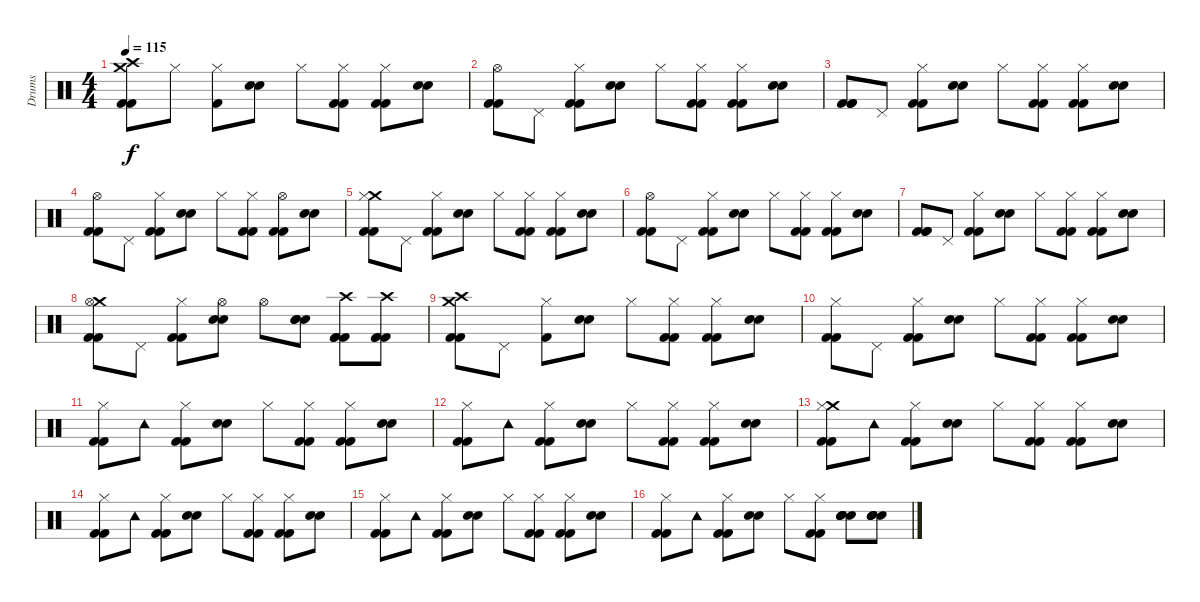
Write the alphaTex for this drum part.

\track ("Drums" "Drums") {instrument percussion}
\staff {score}
\articulation defaults
\ts (4 4)
\tempo 115
\clef neutral
\ks c
("Crash medium (hit)" "Crash high (hit)" "Kick (hit) 2" "Kick (hit) 2").8{dy f} "Hi-Hat (closed)".8 ("Hi-Hat (closed)" "Kick (hit) 2").8 ("Snare (hit) 2" "Snare (hit) 2").8 "Hi-Hat (closed)".8 ("Hi-Hat (closed)" "Kick (hit) 2" "Kick (hit) 2").8 ("Hi-Hat (closed)" "Kick (hit) 2" "Kick (hit) 2").8 ("Snare (hit) 2" "Snare (hit) 2").8 |
("Hi-Hat (open)" "Kick (hit) 2" "Kick (hit) 2").8 "Pedal Hi-Hat (hit)".8 ("Hi-Hat (closed)" "Kick (hit) 2" "Kick (hit) 2").8 ("Snare (hit) 2" "Snare (hit) 2").8 "Hi-Hat (closed)".8 ("Hi-Hat (closed)" "Kick (hit) 2" "Kick (hit) 2").8 ("Hi-Hat (closed)" "Kick (hit) 2" "Kick (hit) 2").8 ("Snare (hit) 2" "Snare (hit) 2").8 |
("Kick (hit) 2" "Kick (hit) 2" "Kick (hit) 2").8 "Pedal Hi-Hat (hit)".8 ("Hi-Hat (closed)" "Kick (hit) 2" "Kick (hit) 2").8 ("Snare (hit) 2" "Snare (hit) 2").8 "Hi-Hat (closed)".8 ("Hi-Hat (closed)" "Kick (hit) 2" "Kick (hit) 2").8 ("Hi-Hat (closed)" "Kick (hit) 2" "Kick (hit) 2").8 ("Snare (hit) 2" "Snare (hit) 2").8 |
("Hi-Hat (open)" "Kick (hit) 2" "Kick (hit) 2").8 "Pedal Hi-Hat (hit)".8 ("Hi-Hat (closed)" "Kick (hit) 2" "Kick (hit) 2").8 ("Snare (hit) 2" "Snare (hit) 2").8 "Hi-Hat (closed)".8 ("Hi-Hat (closed)" "Kick (hit) 2" "Kick (hit) 2").8 ("Hi-Hat (open)" "Kick (hit) 2" "Kick (hit) 2").8 ("Snare (hit) 2" "Snare (hit) 2").8 |
("Crash medium (hit)" "Hi-Hat (closed)" "Kick (hit) 2" "Kick (hit) 2").8 "Pedal Hi-Hat (hit)".8 ("Hi-Hat (closed)" "Kick (hit) 2" "Kick (hit) 2").8 ("Snare (hit) 2" "Snare (hit) 2").8 "Hi-Hat (closed)".8 ("Hi-Hat (closed)" "Kick (hit) 2" "Kick (hit) 2").8 ("Hi-Hat (closed)" "Kick (hit) 2" "Kick (hit) 2").8 ("Snare (hit) 2" "Snare (hit) 2").8 |
("Hi-Hat (open)" "Kick (hit) 2" "Kick (hit) 2").8 "Pedal Hi-Hat (hit)".8 ("Hi-Hat (closed)" "Kick (hit) 2" "Kick (hit) 2").8 ("Snare (hit) 2" "Snare (hit) 2").8 "Hi-Hat (closed)".8 ("Hi-Hat (closed)" "Kick (hit) 2" "Kick (hit) 2").8 ("Hi-Hat (closed)" "Kick (hit) 2" "Kick (hit) 2").8 ("Snare (hit) 2" "Snare (hit) 2").8 |
("Kick (hit) 2" "Kick (hit) 2" "Kick (hit) 2").8 "Pedal Hi-Hat (hit)".8 ("Hi-Hat (closed)" "Kick (hit) 2" "Kick (hit) 2").8 ("Snare (hit) 2" "Snare (hit) 2").8 "Hi-Hat (closed)".8 ("Hi-Hat (closed)" "Kick (hit) 2" "Kick (hit) 2").8 ("Hi-Hat (closed)" "Kick (hit) 2" "Kick (hit) 2").8 ("Snare (hit) 2" "Snare (hit) 2").8 |
("Crash medium (hit)" "Hi-Hat (open)" "Kick (hit) 2" "Kick (hit) 2").8 "Pedal Hi-Hat (hit)".8 ("Hi-Hat (closed)" "Kick (hit) 2" "Kick (hit) 2").8 ("Hi-Hat (open)" "Snare (hit) 2" "Snare (hit) 2").8 "Hi-Hat (open)".8 ("Snare (hit) 2" "Snare (hit) 2" "Snare (hit) 2").8 ("Crash high (hit)" "Kick (hit) 2" "Kick (hit) 2" "Kick (hit) 2").8 ("Crash high (hit)" "Kick (hit) 2" "Kick (hit) 2" "Kick (hit) 2").8 |
("Crash medium (hit)" "Crash high (hit)" "Kick (hit) 2" "Kick (hit) 2").8 "Pedal Hi-Hat (hit)".8 ("Hi-Hat (closed)" "Kick (hit) 2").8 ("Snare (hit) 2" "Snare (hit) 2").8 "Hi-Hat (closed)".8 ("Hi-Hat (closed)" "Kick (hit) 2" "Kick (hit) 2").8 ("Hi-Hat (closed)" "Kick (hit) 2" "Kick (hit) 2").8 ("Snare (hit) 2" "Snare (hit) 2").8 |
("Hi-Hat (closed)" "Kick (hit) 2" "Kick (hit) 2").8 "Pedal Hi-Hat (hit)".8 ("Hi-Hat (closed)" "Kick (hit) 2" "Kick (hit) 2").8 ("Snare (hit) 2" "Snare (hit) 2").8 "Hi-Hat (closed)".8 ("Hi-Hat (closed)" "Kick (hit) 2" "Kick (hit) 2").8 ("Hi-Hat (closed)" "Kick (hit) 2" "Kick (hit) 2").8 ("Snare (hit) 2" "Snare (hit) 2").8 |
("Hi-Hat (closed)" "Kick (hit) 2" "Kick (hit) 2").8 "Tambourine (hit)".8 ("Hi-Hat (closed)" "Kick (hit) 2" "Kick (hit) 2").8 ("Snare (hit) 2" "Snare (hit) 2").8 "Hi-Hat (closed)".8 ("Hi-Hat (closed)" "Kick (hit) 2" "Kick (hit) 2").8 ("Hi-Hat (closed)" "Kick (hit) 2" "Kick (hit) 2").8 ("Snare (hit) 2" "Snare (hit) 2").8 |
("Hi-Hat (closed)" "Kick (hit) 2" "Kick (hit) 2").8 "Tambourine (hit)".8 ("Hi-Hat (closed)" "Kick (hit) 2" "Kick (hit) 2").8 ("Snare (hit) 2" "Snare (hit) 2").8 "Hi-Hat (closed)".8 ("Hi-Hat (closed)" "Kick (hit) 2" "Kick (hit) 2").8 ("Hi-Hat (closed)" "Kick (hit) 2" "Kick (hit) 2").8 ("Snare (hit) 2" "Snare (hit) 2").8 |
("Crash medium (hit)" "Hi-Hat (closed)" "Kick (hit) 2" "Kick (hit) 2").8 "Tambourine (hit)".8 ("Hi-Hat (closed)" "Kick (hit) 2" "Kick (hit) 2").8 ("Snare (hit) 2" "Snare (hit) 2").8 "Hi-Hat (closed)".8 ("Hi-Hat (closed)" "Kick (hit) 2" "Kick (hit) 2").8 ("Hi-Hat (closed)" "Kick (hit) 2" "Kick (hit) 2").8 ("Snare (hit) 2" "Snare (hit) 2").8 |
("Hi-Hat (closed)" "Kick (hit) 2" "Kick (hit) 2").8 "Tambourine (hit)".8 ("Hi-Hat (closed)" "Kick (hit) 2" "Kick (hit) 2").8 ("Snare (hit) 2" "Snare (hit) 2").8 "Hi-Hat (closed)".8 ("Hi-Hat (closed)" "Kick (hit) 2" "Kick (hit) 2").8 ("Hi-Hat (closed)" "Kick (hit) 2" "Kick (hit) 2").8 ("Snare (hit) 2" "Snare (hit) 2").8 |
("Hi-Hat (closed)" "Kick (hit) 2" "Kick (hit) 2").8 "Tambourine (hit)".8 ("Hi-Hat (closed)" "Kick (hit) 2" "Kick (hit) 2").8 ("Snare (hit) 2" "Snare (hit) 2").8 "Hi-Hat (closed)".8 ("Hi-Hat (closed)" "Kick (hit) 2" "Kick (hit) 2").8 ("Hi-Hat (closed)" "Kick (hit) 2" "Kick (hit) 2").8 ("Snare (hit) 2" "Snare (hit) 2").8 |
("Hi-Hat (closed)" "Kick (hit) 2" "Kick (hit) 2").8 "Tambourine (hit)".8 ("Hi-Hat (closed)" "Kick (hit) 2" "Kick (hit) 2").8 ("Snare (hit) 2" "Snare (hit) 2").8 "Hi-Hat (closed)".8 ("Hi-Hat (closed)" "Kick (hit) 2" "Kick (hit) 2").8 ("Snare (hit) 2" "Snare (hit) 2" "Snare (hit) 2" "Snare (hit) 2").8 ("Snare (hit) 2" "Snare (hit) 2" "Snare (hit) 2" "Snare (hit) 2").8
